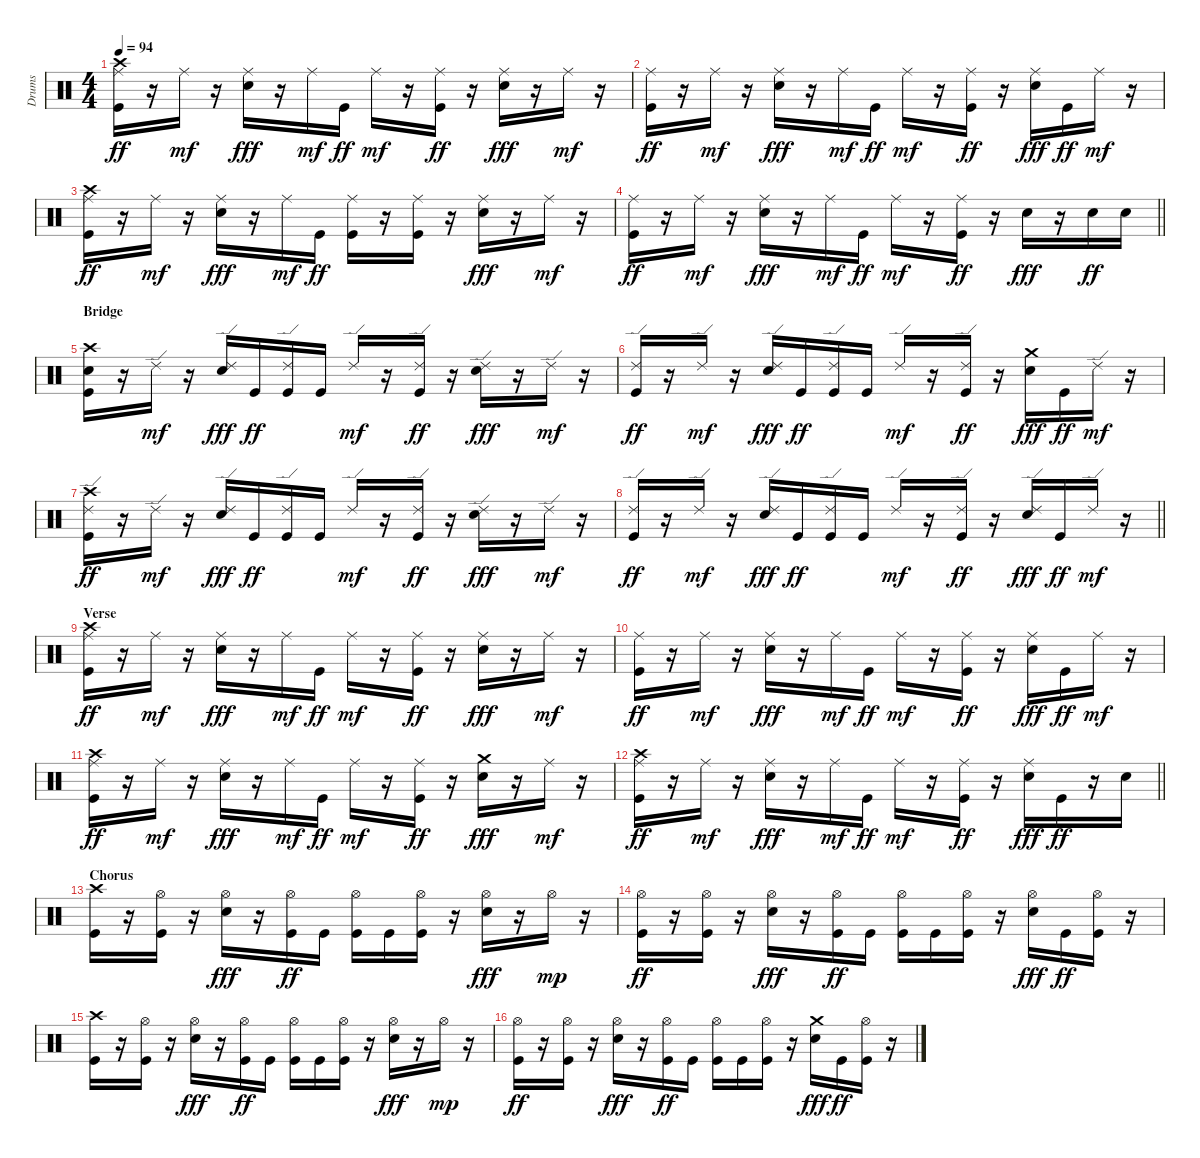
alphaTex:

\track ("Drums" "Drums") {instrument percussion}
\staff {score}
\articulation defaults
\ts (4 4)
\tempo 94
\clef neutral
\ks c
("Crash high (hit)" "Ride (middle)" "Kick (hit)").16{dy ff} r.16 "Ride (middle)".16{dy mf} r.16 ("Ride (middle)" "Electric Snare (hit)").16{dy fff} r.16 "Ride (middle)".16{dy mf} "Kick (hit)".16{dy ff} "Ride (middle)".16{dy mf} r.16 ("Ride (middle)" "Kick (hit)").16{dy ff} r.16 ("Ride (middle)" "Electric Snare (hit)").16{dy fff} r.16 "Ride (middle)".16{dy mf} r.16 |
("Ride (middle)" "Kick (hit)").16{dy ff} r.16 "Ride (middle)".16{dy mf} r.16 ("Ride (middle)" "Electric Snare (hit)").16{dy fff} r.16 "Ride (middle)".16{dy mf} "Kick (hit)".16{dy ff} "Ride (middle)".16{dy mf} r.16 ("Ride (middle)" "Kick (hit)").16{dy ff} r.16 ("Ride (middle)" "Electric Snare (hit)").16{dy fff} "Kick (hit)".16{dy ff} "Ride (middle)".16{dy mf} r.16 |
("Crash high (hit)" "Ride (middle)" "Kick (hit)").16{dy ff} r.16 "Ride (middle)".16{dy mf} r.16 ("Ride (middle)" "Electric Snare (hit)").16{dy fff} r.16 "Ride (middle)".16{dy mf} "Kick (hit)".16{dy ff} ("Ride (middle)" "Kick (hit)").16 r.16 ("Ride (middle)" "Kick (hit)").16 r.16 ("Ride (middle)" "Electric Snare (hit)").16{dy fff} r.16 "Ride (middle)".16{dy mf} r.16 |
\barLineRight lightlight
("Ride (middle)" "Kick (hit)").16{dy ff} r.16 "Ride (middle)".16{dy mf} r.16 ("Ride (middle)" "Electric Snare (hit)").16{dy fff} r.16 "Ride (middle)".16{dy mf} "Kick (hit)".16{dy ff} "Ride (middle)".16{dy mf} r.16 ("Ride (middle)" "Kick (hit)").16{dy ff} r.16 "Electric Snare (hit)".16{dy fff} r.16 "Electric Snare (hit)".16{dy ff} "Electric Snare (hit)".16 |
\section ("" "Bridge")
("Crash high (hit)" "Electric Snare (hit)" "Kick (hit)").16 r.16 "Ride (edge) 2".16{dy mf} r.16 ("Ride (edge) 2" "Electric Snare (hit)").16{dy fff} "Kick (hit)".16{dy ff} ("Ride (edge) 2" "Kick (hit)").16 "Kick (hit)".16 "Ride (edge) 2".16{dy mf} r.16 ("Ride (edge) 2" "Kick (hit)").16{dy ff} r.16 ("Ride (edge) 2" "Electric Snare (hit)").16{dy fff} r.16 "Ride (edge) 2".16{dy mf} r.16 |
("Ride (edge) 2" "Kick (hit)").16{dy ff} r.16 "Ride (edge) 2".16{dy mf} r.16 ("Ride (edge) 2" "Electric Snare (hit)").16{dy fff} "Kick (hit)".16{dy ff} ("Ride (edge) 2" "Kick (hit)").16 "Kick (hit)".16 "Ride (edge) 2".16{dy mf} r.16 ("Ride (edge) 2" "Kick (hit)").16{dy ff} r.16 ("Crash medium (hit)" "Electric Snare (hit)").16{dy fff} "Kick (hit)".16{dy ff} "Ride (edge) 2".16{dy mf} r.16 |
("Crash high (hit)" "Ride (edge) 2" "Kick (hit)").16{dy ff} r.16 "Ride (edge) 2".16{dy mf} r.16 ("Ride (edge) 2" "Electric Snare (hit)").16{dy fff} "Kick (hit)".16{dy ff} ("Ride (edge) 2" "Kick (hit)").16 "Kick (hit)".16 "Ride (edge) 2".16{dy mf} r.16 ("Ride (edge) 2" "Kick (hit)").16{dy ff} r.16 ("Ride (edge) 2" "Electric Snare (hit)").16{dy fff} r.16 "Ride (edge) 2".16{dy mf} r.16 |
\barLineRight lightlight
("Ride (edge) 2" "Kick (hit)").16{dy ff} r.16 "Ride (edge) 2".16{dy mf} r.16 ("Ride (edge) 2" "Electric Snare (hit)").16{dy fff} "Kick (hit)".16{dy ff} ("Ride (edge) 2" "Kick (hit)").16 "Kick (hit)".16 "Ride (edge) 2".16{dy mf} r.16 ("Ride (edge) 2" "Kick (hit)").16{dy ff} r.16 ("Ride (edge) 2" "Electric Snare (hit)").16{dy fff} "Kick (hit)".16{dy ff} "Ride (edge) 2".16{dy mf} r.16 |
\section ("" "Verse")
("Crash high (hit)" "Ride (middle)" "Kick (hit)").16{dy ff} r.16 "Ride (middle)".16{dy mf} r.16 ("Ride (middle)" "Electric Snare (hit)").16{dy fff} r.16 "Ride (middle)".16{dy mf} "Kick (hit)".16{dy ff} "Ride (middle)".16{dy mf} r.16 ("Ride (middle)" "Kick (hit)").16{dy ff} r.16 ("Ride (middle)" "Electric Snare (hit)").16{dy fff} r.16 "Ride (middle)".16{dy mf} r.16 |
("Ride (middle)" "Kick (hit)").16{dy ff} r.16 "Ride (middle)".16{dy mf} r.16 ("Ride (middle)" "Electric Snare (hit)").16{dy fff} r.16 "Ride (middle)".16{dy mf} "Kick (hit)".16{dy ff} "Ride (middle)".16{dy mf} r.16 ("Ride (middle)" "Kick (hit)").16{dy ff} r.16 ("Ride (middle)" "Electric Snare (hit)").16{dy fff} "Kick (hit)".16{dy ff} "Ride (middle)".16{dy mf} r.16 |
("Crash high (hit)" "Ride (middle)" "Kick (hit)").16{dy ff} r.16 "Ride (middle)".16{dy mf} r.16 ("Ride (middle)" "Electric Snare (hit)").16{dy fff} r.16 "Ride (middle)".16{dy mf} "Kick (hit)".16{dy ff} "Ride (middle)".16{dy mf} r.16 ("Ride (middle)" "Kick (hit)").16{dy ff} r.16 ("Crash medium (hit)" "Electric Snare (hit)").16{dy fff} r.16 "Ride (middle)".16{dy mf} r.16 |
\barLineRight lightlight
("Crash high (hit)" "Ride (middle)" "Kick (hit)").16{dy ff} r.16 "Ride (middle)".16{dy mf} r.16 ("Ride (middle)" "Electric Snare (hit)").16{dy fff} r.16 "Ride (middle)".16{dy mf} "Kick (hit)".16{dy ff} "Ride (middle)".16{dy mf} r.16 ("Ride (middle)" "Kick (hit)").16{dy ff} r.16 ("Ride (middle)" "Electric Snare (hit)").16{dy fff} "Kick (hit)".16{dy ff} r.16 "Electric Snare (hit)".16 |
\section ("" "Chorus")
("Crash high (hit)" "Kick (hit)").16 r.16 ("Hi-Hat (open)" "Kick (hit)").16 r.16 ("Hi-Hat (open)" "Electric Snare (hit)").16{dy fff} r.16 ("Hi-Hat (open)" "Kick (hit)").16{dy ff} "Kick (hit)".16 ("Hi-Hat (open)" "Kick (hit)").16 "Kick (hit)".16 ("Hi-Hat (open)" "Kick (hit)").16 r.16 ("Hi-Hat (open)" "Electric Snare (hit)").16{dy fff} r.16 "Hi-Hat (open)".16{dy mp} r.16 |
("Hi-Hat (open)" "Kick (hit)").16{dy ff} r.16 ("Hi-Hat (open)" "Kick (hit)").16 r.16 ("Hi-Hat (open)" "Electric Snare (hit)").16{dy fff} r.16 ("Hi-Hat (open)" "Kick (hit)").16{dy ff} "Kick (hit)".16 ("Hi-Hat (open)" "Kick (hit)").16 "Kick (hit)".16 ("Hi-Hat (open)" "Kick (hit)").16 r.16 ("Hi-Hat (open)" "Electric Snare (hit)").16{dy fff} "Kick (hit)".16{dy ff} ("Hi-Hat (open)" "Kick (hit)").16 r.16 |
("Crash high (hit)" "Kick (hit)").16 r.16 ("Hi-Hat (open)" "Kick (hit)").16 r.16 ("Hi-Hat (open)" "Electric Snare (hit)").16{dy fff} r.16 ("Hi-Hat (open)" "Kick (hit)").16{dy ff} "Kick (hit)".16 ("Hi-Hat (open)" "Kick (hit)").16 "Kick (hit)".16 ("Hi-Hat (open)" "Kick (hit)").16 r.16 ("Hi-Hat (open)" "Electric Snare (hit)").16{dy fff} r.16 "Hi-Hat (open)".16{dy mp} r.16 |
("Hi-Hat (open)" "Kick (hit)").16{dy ff} r.16 ("Hi-Hat (open)" "Kick (hit)").16 r.16 ("Hi-Hat (open)" "Electric Snare (hit)").16{dy fff} r.16 ("Hi-Hat (open)" "Kick (hit)").16{dy ff} "Kick (hit)".16 ("Hi-Hat (open)" "Kick (hit)").16 "Kick (hit)".16 ("Hi-Hat (open)" "Kick (hit)").16 r.16 ("Crash medium (hit)" "Electric Snare (hit)").16{dy fff} "Kick (hit)".16{dy ff} ("Hi-Hat (open)" "Kick (hit)").16 r.16
